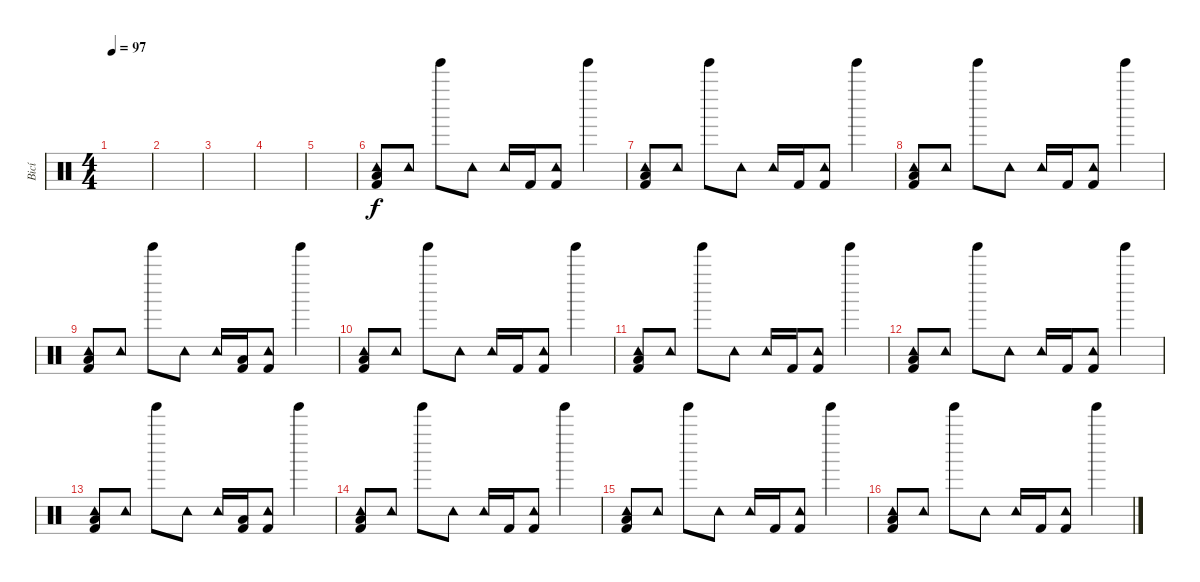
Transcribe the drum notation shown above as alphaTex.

\track ("Bicí" "Bicí") {instrument percussion}
\staff {score}
\articulation defaults
\ts (4 4)
\tempo 97
\clef neutral
\ks c
|
|
|
|
|
("Tambourine (hit)" "Low Floor Tom (hit)" "Kick (hit) 2").8{dy f} "Tambourine (hit)".8 "Tinkle Bell (hit)".8 "Tambourine (hit)".8 "Tambourine (hit)".16 "Kick (hit) 2".16 ("Tambourine (hit)" "Kick (hit) 2").8 "Tinkle Bell (hit)".4 |
("Tambourine (hit)" "Low Floor Tom (hit)" "Kick (hit) 2").8 "Tambourine (hit)".8 "Tinkle Bell (hit)".8 "Tambourine (hit)".8 "Tambourine (hit)".16 "Kick (hit) 2".16 ("Tambourine (hit)" "Kick (hit) 2").8 "Tinkle Bell (hit)".4 |
("Tambourine (hit)" "Low Floor Tom (hit)" "Kick (hit) 2").8 "Tambourine (hit)".8 "Tinkle Bell (hit)".8 "Tambourine (hit)".8 "Tambourine (hit)".16 "Kick (hit) 2".16 ("Tambourine (hit)" "Kick (hit) 2").8 "Tinkle Bell (hit)".4 |
("Tambourine (hit)" "Low Floor Tom (hit)" "Kick (hit) 2").8 "Tambourine (hit)".8 "Tinkle Bell (hit)".8 "Tambourine (hit)".8 "Tambourine (hit)".16 ("Low Floor Tom (hit)" "Kick (hit) 2").16 ("Tambourine (hit)" "Kick (hit) 2").8 "Tinkle Bell (hit)".4 |
("Tambourine (hit)" "Low Floor Tom (hit)" "Kick (hit) 2").8 "Tambourine (hit)".8 "Tinkle Bell (hit)".8 "Tambourine (hit)".8 "Tambourine (hit)".16 "Kick (hit) 2".16 ("Tambourine (hit)" "Kick (hit) 2").8 "Tinkle Bell (hit)".4 |
("Tambourine (hit)" "Low Floor Tom (hit)" "Kick (hit) 2").8 "Tambourine (hit)".8 "Tinkle Bell (hit)".8 "Tambourine (hit)".8 "Tambourine (hit)".16 "Kick (hit) 2".16 ("Tambourine (hit)" "Kick (hit) 2").8 "Tinkle Bell (hit)".4 |
("Tambourine (hit)" "Low Floor Tom (hit)" "Kick (hit) 2").8 "Tambourine (hit)".8 "Tinkle Bell (hit)".8 "Tambourine (hit)".8 "Tambourine (hit)".16 "Kick (hit) 2".16 ("Tambourine (hit)" "Kick (hit) 2").8 "Tinkle Bell (hit)".4 |
("Tambourine (hit)" "Low Floor Tom (hit)" "Kick (hit) 2").8 "Tambourine (hit)".8 "Tinkle Bell (hit)".8 "Tambourine (hit)".8 "Tambourine (hit)".16 ("Low Floor Tom (hit)" "Kick (hit) 2").16 ("Tambourine (hit)" "Kick (hit) 2").8 "Tinkle Bell (hit)".4 |
("Tambourine (hit)" "Low Floor Tom (hit)" "Kick (hit) 2").8 "Tambourine (hit)".8 "Tinkle Bell (hit)".8 "Tambourine (hit)".8 "Tambourine (hit)".16 "Kick (hit) 2".16 ("Tambourine (hit)" "Kick (hit) 2").8 "Tinkle Bell (hit)".4 |
("Tambourine (hit)" "Low Floor Tom (hit)" "Kick (hit) 2").8 "Tambourine (hit)".8 "Tinkle Bell (hit)".8 "Tambourine (hit)".8 "Tambourine (hit)".16 "Kick (hit) 2".16 ("Tambourine (hit)" "Kick (hit) 2").8 "Tinkle Bell (hit)".4 |
("Tambourine (hit)" "Low Floor Tom (hit)" "Kick (hit) 2").8 "Tambourine (hit)".8 "Tinkle Bell (hit)".8 "Tambourine (hit)".8 "Tambourine (hit)".16 "Kick (hit) 2".16 ("Tambourine (hit)" "Kick (hit) 2").8 "Tinkle Bell (hit)".4
